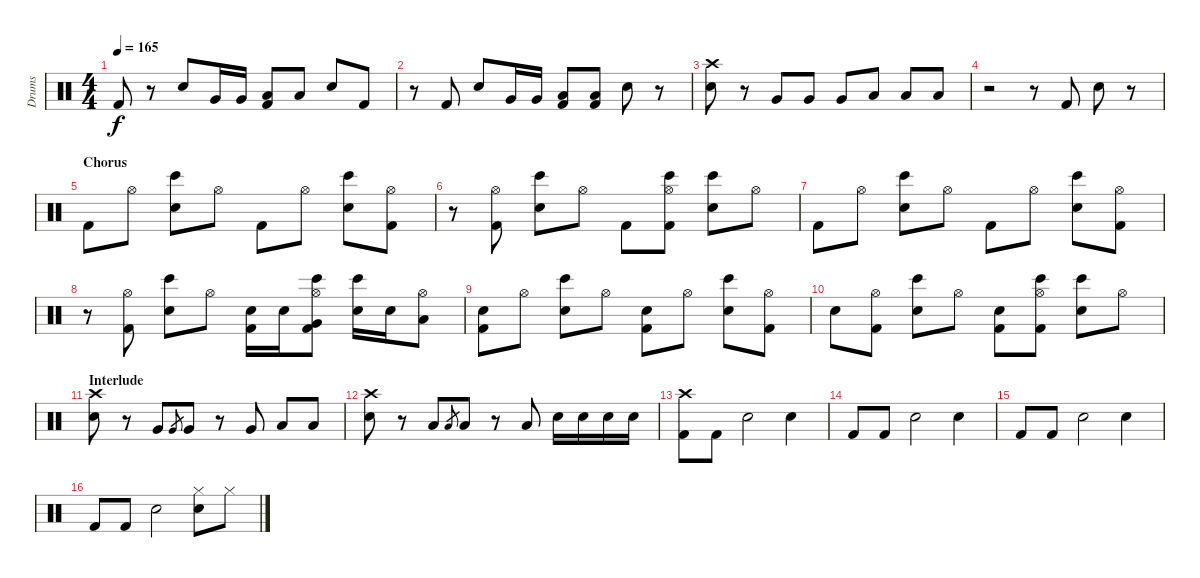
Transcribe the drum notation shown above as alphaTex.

\track ("Drums" "Drums") {instrument percussion}
\staff {score}
\articulation defaults
\ts (4 4)
\tempo 165
\clef neutral
\ks c "Kick (hit) 2".8{dy f}
r.8 "Electric Snare (hit)".8 "Very Low Tom (hit)".16 "Very Low Tom (hit)".16 ("Kick (hit) 2" "Low Floor Tom (hit)").8 "Low Floor Tom (hit)".8 "Electric Snare (hit)".8 "Kick (hit) 2".8 |
r.8 "Kick (hit) 2".8 "Electric Snare (hit)".8 "Very Low Tom (hit)".16 "Very Low Tom (hit)".16 ("Kick (hit) 2" "Low Floor Tom (hit)").8 ("Kick (hit) 2" "Low Floor Tom (hit)").8 "Electric Snare (hit)".8 r.8 |
("Crash high (hit)" "Electric Snare (hit)").8 r.8 "Very Low Tom (hit)".8 "Very Low Tom (hit)".8 "Very Low Tom (hit)".8 "Low Floor Tom (hit)".8 "Low Floor Tom (hit)".8 "Low Floor Tom (hit)".8 |
r.2 r.8 "Kick (hit) 2".8 "Electric Snare (hit)".8 r.8 |
\section ("" "Chorus")
"Kick (hit) 2".8 "Hi-Hat (open)".8 ("Electric Snare (hit)" "Bongo High (hit)").8 "Hi-Hat (open)".8 "Kick (hit) 2".8 "Hi-Hat (open)".8 ("Electric Snare (hit)" "Bongo High (hit)").8 ("Hi-Hat (open)" "Kick (hit) 2").8 |
r.8 ("Hi-Hat (open)" "Kick (hit) 2").8 ("Electric Snare (hit)" "Bongo High (hit)").8 "Hi-Hat (open)".8 "Kick (hit) 2".8 ("Hi-Hat (open)" "Kick (hit) 2" "Bongo High (hit)").8 ("Electric Snare (hit)" "Bongo High (hit)").8 "Hi-Hat (open)".8 |
"Kick (hit) 2".8 "Hi-Hat (open)".8 ("Electric Snare (hit)" "Bongo High (hit)").8 "Hi-Hat (open)".8 "Kick (hit) 2".8 "Hi-Hat (open)".8 ("Electric Snare (hit)" "Bongo High (hit)").8 ("Hi-Hat (open)" "Kick (hit) 2").8 |
r.8 ("Hi-Hat (open)" "Kick (hit) 2").8 ("Electric Snare (hit)" "Bongo High (hit)").8 "Hi-Hat (open)".8 ("Kick (hit) 2" "Electric Snare (hit)").16 "Electric Snare (hit)".16 ("Hi-Hat (open)" "Kick (hit) 2" "Very Low Tom (hit)" "Bongo High (hit)").8 ("Electric Snare (hit)" "Bongo High (hit)").16 "Electric Snare (hit)".16 ("Hi-Hat (open)" "Low Floor Tom (hit)").8 |
("Kick (hit) 2" "Electric Snare (hit)").8 "Hi-Hat (open)".8 ("Electric Snare (hit)" "Bongo High (hit)").8 "Hi-Hat (open)".8 ("Kick (hit) 2" "Electric Snare (hit)").8 "Hi-Hat (open)".8 ("Electric Snare (hit)" "Bongo High (hit)").8 ("Hi-Hat (open)" "Kick (hit) 2").8 |
"Electric Snare (hit)".8 ("Hi-Hat (open)" "Kick (hit) 2").8 ("Electric Snare (hit)" "Bongo High (hit)").8 "Hi-Hat (open)".8 ("Kick (hit) 2" "Electric Snare (hit)").8 ("Hi-Hat (open)" "Kick (hit) 2" "Bongo High (hit)").8 ("Electric Snare (hit)" "Bongo High (hit)").8 "Hi-Hat (open)".8 |
\section ("" "Interlude")
("Crash high (hit)" "Electric Snare (hit)").8 r.8 "Very Low Tom (hit)".8 "Very Low Tom (hit)".8{gr} "Very Low Tom (hit)".8 r.8 "Very Low Tom (hit)".8 "Low Floor Tom (hit)".8 "Low Floor Tom (hit)".8 |
("Crash high (hit)" "Electric Snare (hit)").8 r.8 "Low Tom (hit)".8 "Low Tom (hit)".8{gr} "Low Tom (hit)".8 r.8 "Low Tom (hit)".8 "Electric Snare (hit)".16 "Electric Snare (hit)".16 "Electric Snare (hit)".16 "Electric Snare (hit)".16 |
("Crash high (hit)" "Kick (hit) 2").8 "Kick (hit) 2".8 "Electric Snare (hit)".2 "Electric Snare (hit)".4 |
"Kick (hit) 2".8 "Kick (hit) 2".8 "Electric Snare (hit)".2 "Electric Snare (hit)".4 |
"Kick (hit) 2".8 "Kick (hit) 2".8 "Electric Snare (hit)".2 "Electric Snare (hit)".4 |
"Kick (hit) 2".8 "Kick (hit) 2".8 "Electric Snare (hit)".2 ("Hi-Hat (closed)" "Electric Snare (hit)").8 "Hi-Hat (closed)".8
